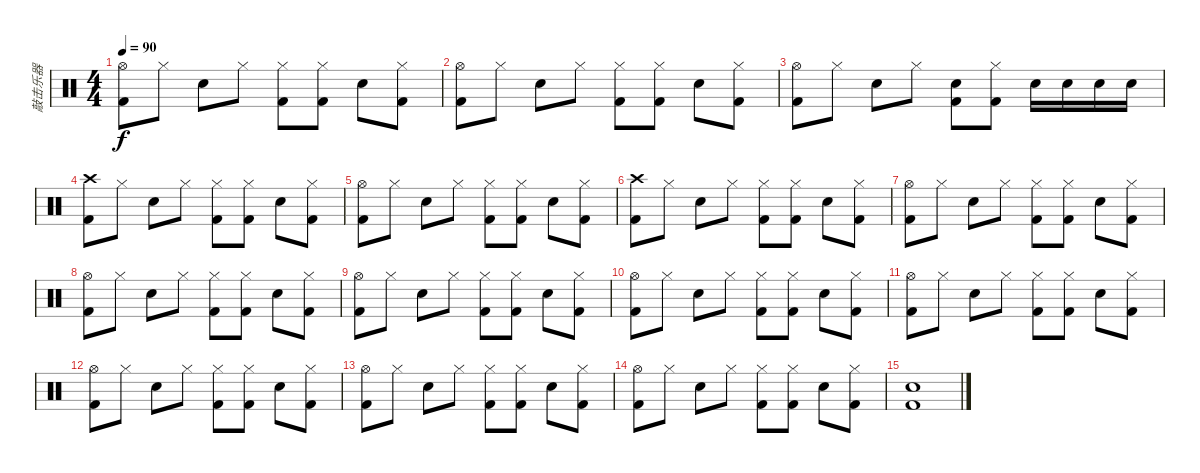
\track ("敲击乐器" "敲击乐器") {instrument percussion bank 8}
\staff {score}
\articulation defaults
\ts (4 4)
\tempo 90
\clef neutral
\ks c
("Hi-Hat (open)" "Kick (hit) 2").8{dy f} "Hi-Hat (closed)".8 "Electric Snare (hit)".8 "Hi-Hat (closed)".8 ("Hi-Hat (closed)" "Kick (hit) 2").8 ("Hi-Hat (closed)" "Kick (hit) 2").8 "Electric Snare (hit)".8 ("Hi-Hat (closed)" "Kick (hit) 2").8 |
("Hi-Hat (open)" "Kick (hit) 2").8 "Hi-Hat (closed)".8 "Electric Snare (hit)".8 "Hi-Hat (closed)".8 ("Hi-Hat (closed)" "Kick (hit) 2").8 ("Hi-Hat (closed)" "Kick (hit) 2").8 "Electric Snare (hit)".8 ("Hi-Hat (closed)" "Kick (hit) 2").8 |
("Hi-Hat (open)" "Kick (hit) 2").8 "Hi-Hat (closed)".8 "Electric Snare (hit)".8 "Hi-Hat (closed)".8 ("Electric Snare (hit)" "Kick (hit) 2").8 ("Hi-Hat (closed)" "Kick (hit) 2").8 "Electric Snare (hit)".16 "Electric Snare (hit)".16 "Electric Snare (hit)".16 "Electric Snare (hit)".16 |
("Crash high (hit)" "Kick (hit) 2").8 "Hi-Hat (closed)".8 "Electric Snare (hit)".8 "Hi-Hat (closed)".8 ("Hi-Hat (closed)" "Kick (hit) 2").8 ("Hi-Hat (closed)" "Kick (hit) 2").8 "Electric Snare (hit)".8 ("Hi-Hat (closed)" "Kick (hit) 2").8 |
("Hi-Hat (open)" "Kick (hit) 2").8 "Hi-Hat (closed)".8 "Electric Snare (hit)".8 "Hi-Hat (closed)".8 ("Hi-Hat (closed)" "Kick (hit) 2").8 ("Hi-Hat (closed)" "Kick (hit) 2").8 "Electric Snare (hit)".8 ("Hi-Hat (closed)" "Kick (hit) 2").8 |
("Crash high (hit)" "Kick (hit) 2").8 "Hi-Hat (closed)".8 "Electric Snare (hit)".8 "Hi-Hat (closed)".8 ("Hi-Hat (closed)" "Kick (hit) 2").8 ("Hi-Hat (closed)" "Kick (hit) 2").8 "Electric Snare (hit)".8 ("Hi-Hat (closed)" "Kick (hit) 2").8 |
("Hi-Hat (open)" "Kick (hit) 2").8 "Hi-Hat (closed)".8 "Electric Snare (hit)".8 "Hi-Hat (closed)".8 ("Hi-Hat (closed)" "Kick (hit) 2").8 ("Hi-Hat (closed)" "Kick (hit) 2").8 "Electric Snare (hit)".8 ("Hi-Hat (closed)" "Kick (hit) 2").8 |
("Hi-Hat (open)" "Kick (hit) 2").8 "Hi-Hat (closed)".8 "Electric Snare (hit)".8 "Hi-Hat (closed)".8 ("Hi-Hat (closed)" "Kick (hit) 2").8 ("Hi-Hat (closed)" "Kick (hit) 2").8 "Electric Snare (hit)".8 ("Hi-Hat (closed)" "Kick (hit) 2").8 |
("Hi-Hat (open)" "Kick (hit) 2").8 "Hi-Hat (closed)".8 "Electric Snare (hit)".8 "Hi-Hat (closed)".8 ("Hi-Hat (closed)" "Kick (hit) 2").8 ("Hi-Hat (closed)" "Kick (hit) 2").8 "Electric Snare (hit)".8 ("Hi-Hat (closed)" "Kick (hit) 2").8 |
("Hi-Hat (open)" "Kick (hit) 2").8 "Hi-Hat (closed)".8 "Electric Snare (hit)".8 "Hi-Hat (closed)".8 ("Hi-Hat (closed)" "Kick (hit) 2").8 ("Hi-Hat (closed)" "Kick (hit) 2").8 "Electric Snare (hit)".8 ("Hi-Hat (closed)" "Kick (hit) 2").8 |
("Hi-Hat (open)" "Kick (hit) 2").8 "Hi-Hat (closed)".8 "Electric Snare (hit)".8 "Hi-Hat (closed)".8 ("Hi-Hat (closed)" "Kick (hit) 2").8 ("Hi-Hat (closed)" "Kick (hit) 2").8 "Electric Snare (hit)".8 ("Hi-Hat (closed)" "Kick (hit) 2").8 |
("Hi-Hat (open)" "Kick (hit) 2").8 "Hi-Hat (closed)".8 "Electric Snare (hit)".8 "Hi-Hat (closed)".8 ("Hi-Hat (closed)" "Kick (hit) 2").8 ("Hi-Hat (closed)" "Kick (hit) 2").8 "Electric Snare (hit)".8 ("Hi-Hat (closed)" "Kick (hit) 2").8 |
("Hi-Hat (open)" "Kick (hit) 2").8 "Hi-Hat (closed)".8 "Electric Snare (hit)".8 "Hi-Hat (closed)".8 ("Hi-Hat (closed)" "Kick (hit) 2").8 ("Hi-Hat (closed)" "Kick (hit) 2").8 "Electric Snare (hit)".8 ("Hi-Hat (closed)" "Kick (hit) 2").8 |
("Hi-Hat (open)" "Kick (hit) 2").8 "Hi-Hat (closed)".8 "Electric Snare (hit)".8 "Hi-Hat (closed)".8 ("Hi-Hat (closed)" "Kick (hit) 2").8 ("Hi-Hat (closed)" "Kick (hit) 2").8 "Electric Snare (hit)".8 ("Hi-Hat (closed)" "Kick (hit) 2").8 |
("Electric Snare (hit)" "Kick (hit) 2").1
